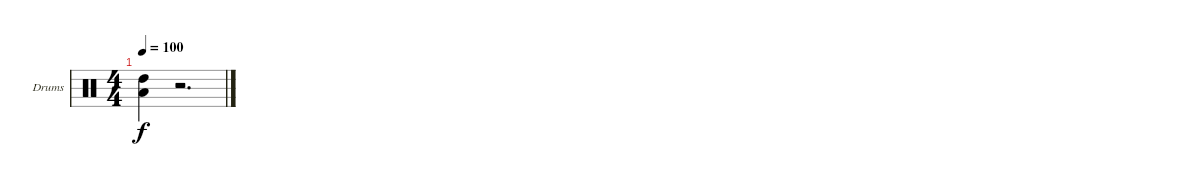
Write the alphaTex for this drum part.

\bracketExtendMode groupsimilarinstruments
\firstSystemTrackNameOrientation horizontal
\otherSystemsTrackNameOrientation horizontal
\track ("Drumkit" "Drums") {instrument percussion}
\staff {score}
\articulation defaults
\ts (4 4)
\tempo 100
\clef neutral
\ks c
("High Tom (hit)" "Low Tom (hit)").4{dy f} r.2{d}
